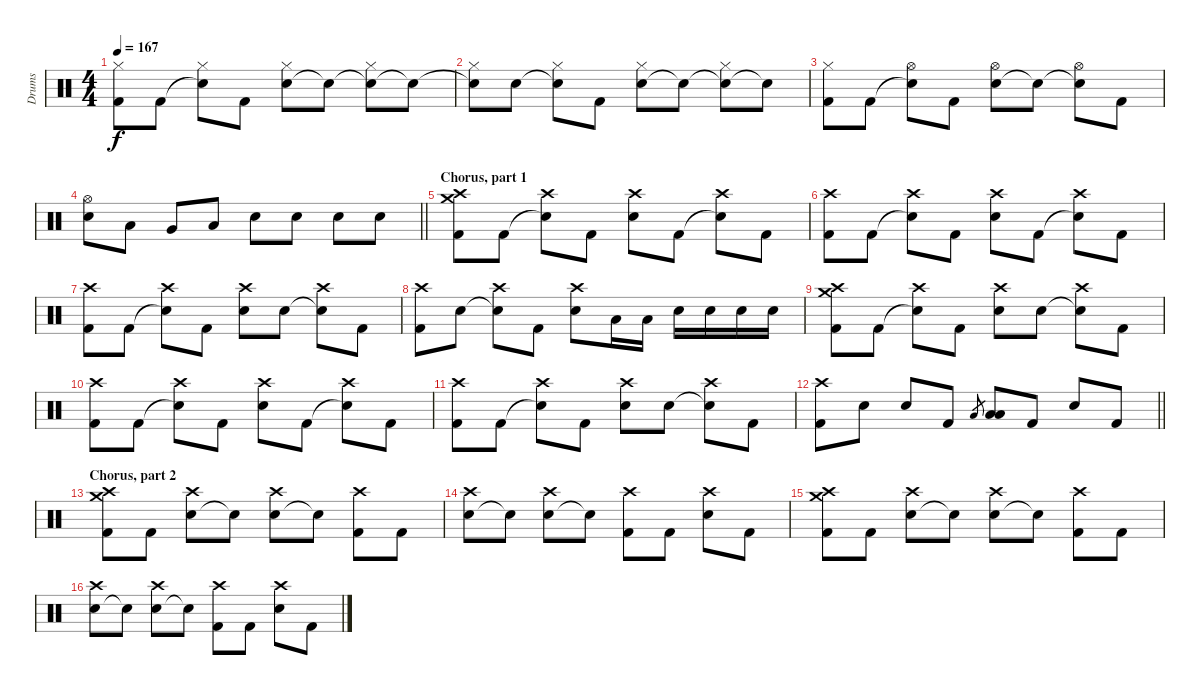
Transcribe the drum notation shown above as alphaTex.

\track ("Drums" "Drums") {instrument percussion}
\staff {score}
\articulation defaults
\ts (4 4)
\tempo 167
\clef neutral
\ks c
("Kick (hit) 2" "Hi-Hat (closed)").8{dy f} "Kick (hit) 2".8 ("Snare (hit)"{t} "Hi-Hat (closed)").8 "Kick (hit) 2".8 ("Electric Snare (hit)" "Hi-Hat (closed)").8 "Snare (hit)"{t}.8 ("Snare (hit)"{t} "Hi-Hat (closed)").8 "Electric Snare (hit)"{t}.8 |
("Snare (hit)"{t} "Hi-Hat (closed)").8 "Electric Snare (hit)".8 ("Electric Snare (hit)"{t} "Hi-Hat (closed)").8 "Kick (hit) 2".8 ("Electric Snare (hit)" "Hi-Hat (closed)").8 "Electric Snare (hit)"{t}.8 ("Snare (hit)"{t} "Hi-Hat (closed)").8 "Snare (hit)"{t}.8 |
("Kick (hit) 2" "Hi-Hat (closed)").8 "Kick (hit) 2".8 ("Snare (hit)"{t} "Hi-Hat (open)").8 "Kick (hit) 2".8 ("Electric Snare (hit)" "Hi-Hat (open)").8 "Snare (hit)"{t}.8 ("Electric Snare (hit)"{t} "Hi-Hat (open)").8 "Kick (hit) 2".8 |
\barLineRight lightlight
("Electric Snare (hit)" "Hi-Hat (open)").8 "Low Tom (hit)".8 "Very Low Tom (hit)".8 "Low Floor Tom (hit)".8 "Electric Snare (hit)".8 "Electric Snare (hit)".8 "Electric Snare (hit)".8 "Electric Snare (hit)".8 |
\section ("" "Chorus, part 1")
("Kick (hit) 2" "Crash medium (hit)" "Crash high (hit)").8 "Kick (hit) 2".8 ("Snare (hit)"{t} "Crash high (hit)").8 "Kick (hit) 2".8 ("Electric Snare (hit)" "Crash high (hit)").8 "Kick (hit) 2".8 ("Snare (hit)"{t} "Crash high (hit)").8 "Kick (hit) 2".8 |
("Kick (hit) 2" "Crash high (hit)").8 "Kick (hit) 2".8 ("Snare (hit)"{t} "Crash high (hit)").8 "Kick (hit) 2".8 ("Electric Snare (hit)" "Crash high (hit)").8 "Kick (hit) 2".8 ("Snare (hit)"{t} "Crash high (hit)").8 "Kick (hit) 2".8 |
("Kick (hit) 2" "Crash high (hit)").8 "Kick (hit) 2".8 ("Snare (hit)"{t} "Crash high (hit)").8 "Kick (hit) 2".8 ("Electric Snare (hit)" "Crash high (hit)").8 "Electric Snare (hit)".8 ("Snare (hit)"{t} "Crash high (hit)").8 "Kick (hit) 2".8 |
("Kick (hit) 2" "Crash high (hit)").8 "Electric Snare (hit)".8 ("Snare (hit)"{t} "Crash high (hit)").8 "Kick (hit) 2".8 ("Electric Snare (hit)" "Crash high (hit)").8 "Low Tom (hit)".16 "Low Tom (hit)".16 "Electric Snare (hit)".16 "Electric Snare (hit)".16 "Electric Snare (hit)".16 "Electric Snare (hit)".16 |
("Kick (hit) 2" "Crash medium (hit)" "Crash high (hit)").8 "Kick (hit) 2".8 ("Snare (hit)"{t} "Crash high (hit)").8 "Kick (hit) 2".8 ("Electric Snare (hit)" "Crash high (hit)").8 "Electric Snare (hit)".8 ("Snare (hit)"{t} "Crash high (hit)").8 "Kick (hit) 2".8 |
("Kick (hit) 2" "Crash high (hit)").8 "Kick (hit) 2".8 ("Snare (hit)"{t} "Crash high (hit)").8 "Kick (hit) 2".8 ("Electric Snare (hit)" "Crash high (hit)").8 "Kick (hit) 2".8 ("Snare (hit)"{t} "Crash high (hit)").8 "Kick (hit) 2".8 |
("Kick (hit) 2" "Crash high (hit)").8 "Kick (hit) 2".8 ("Snare (hit)"{t} "Crash high (hit)").8 "Kick (hit) 2".8 ("Electric Snare (hit)" "Crash high (hit)").8 "Electric Snare (hit)".8 ("Snare (hit)"{t} "Crash high (hit)").8 "Kick (hit) 2".8 |
\barLineRight lightlight
("Kick (hit) 2" "Crash high (hit)").8 "Electric Snare (hit)".8 "Electric Snare (hit)".8 "Kick (hit) 2".8 "Low Tom (hit)".8{gr} ("Low Tom (hit)" "Low Floor Tom (hit)").8 "Kick (hit) 2".8 "Electric Snare (hit)".8 "Kick (hit) 2".8 |
\section ("" "Chorus, part 2")
("Kick (hit) 2" "Crash medium (hit)" "Crash high (hit)").8 "Kick (hit) 2".8 ("Electric Snare (hit)" "Crash high (hit)").8 "Snare (hit)"{t}.8 ("Electric Snare (hit)" "Crash high (hit)").8 "Snare (hit)"{t}.8 ("Kick (hit) 2" "Crash high (hit)").8 "Kick (hit) 2".8 |
("Electric Snare (hit)" "Crash high (hit)").8 "Snare (hit)"{t}.8 ("Electric Snare (hit)" "Crash high (hit)").8 "Snare (hit)"{t}.8 ("Kick (hit) 2" "Crash high (hit)").8 "Kick (hit) 2".8 ("Electric Snare (hit)" "Crash high (hit)").8 "Kick (hit) 2".8 |
("Kick (hit) 2" "Crash medium (hit)" "Crash high (hit)").8 "Kick (hit) 2".8 ("Electric Snare (hit)" "Crash high (hit)").8 "Snare (hit)"{t}.8 ("Electric Snare (hit)" "Crash high (hit)").8 "Snare (hit)"{t}.8 ("Kick (hit) 2" "Crash high (hit)").8 "Kick (hit) 2".8 |
("Electric Snare (hit)" "Crash high (hit)").8 "Snare (hit)"{t}.8 ("Electric Snare (hit)" "Crash high (hit)").8 "Snare (hit)"{t}.8 ("Kick (hit) 2" "Crash high (hit)").8 "Kick (hit) 2".8 ("Electric Snare (hit)" "Crash high (hit)").8 "Kick (hit) 2".8
